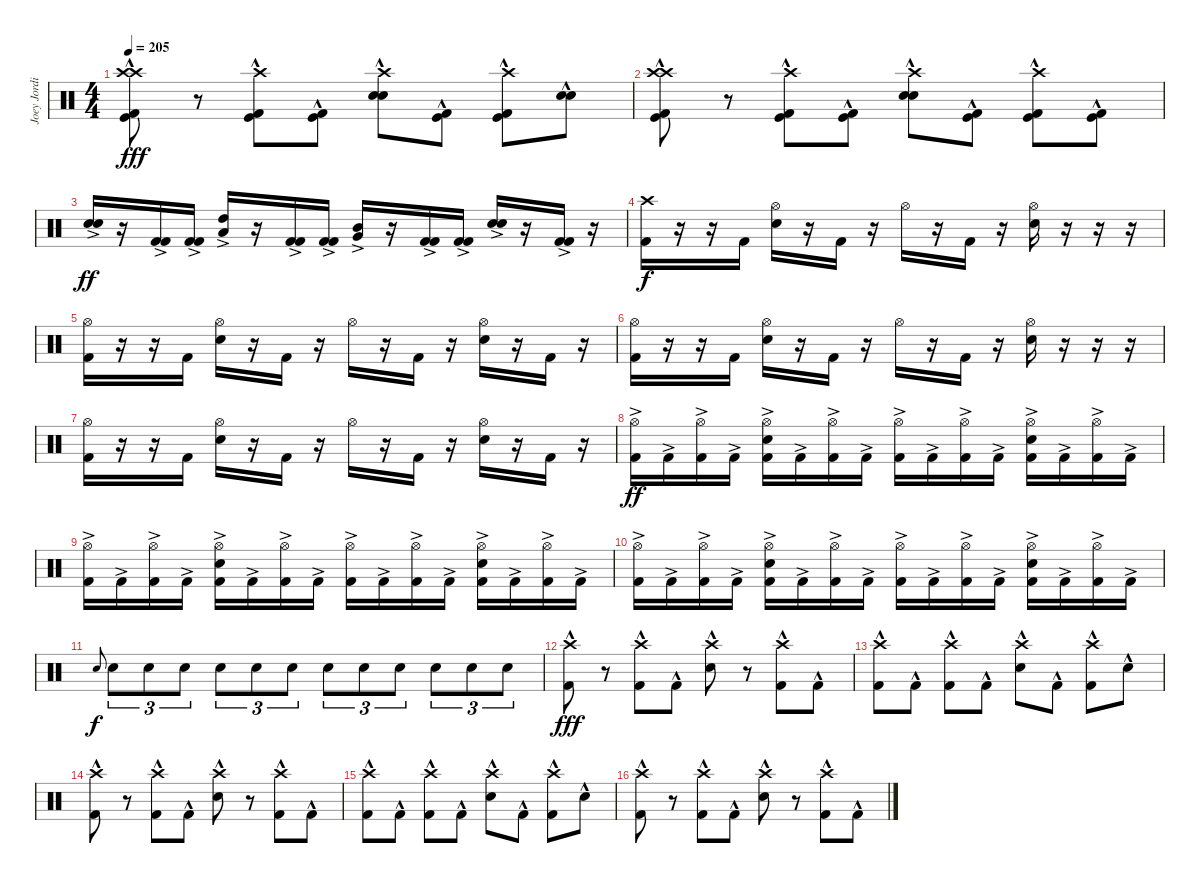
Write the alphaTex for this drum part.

\track ("Joey Jordison" "Joey Jordi") {instrument percussion}
\staff {score}
\articulation defaults
\ts (4 4)
\tempo 205
\clef neutral
\ks c
("Crash high (hit)"{hac} "Crash high (hit)"{hac} "Kick (hit)"{hac} "Kick (hit) 2"{hac}).8{dy fff} r.8 ("Crash high (hit)"{hac} "Kick (hit)"{hac} "Kick (hit) 2"{hac}).8 ("Kick (hit)"{hac} "Kick (hit) 2"{hac}).8 ("Crash high (hit)"{hac} "Electric Snare (hit)"{hac} "Electric Snare (hit)"{hac}).8 ("Kick (hit)"{hac} "Kick (hit) 2"{hac}).8 ("Crash high (hit)"{hac} "Kick (hit)"{hac} "Kick (hit) 2"{hac}).8 ("Electric Snare (hit)"{hac} "Electric Snare (hit)"{hac}).8 |
("Crash high (hit)"{hac} "Crash high (hit)"{hac} "Kick (hit)"{hac} "Kick (hit) 2"{hac}).8 r.8 ("Crash high (hit)"{hac} "Kick (hit)"{hac} "Kick (hit) 2"{hac}).8 ("Kick (hit)"{hac} "Kick (hit) 2"{hac}).8 ("Crash high (hit)"{hac} "Electric Snare (hit)"{hac} "Electric Snare (hit)"{hac}).8 ("Kick (hit)"{hac} "Kick (hit) 2"{hac}).8 ("Crash high (hit)"{hac} "Kick (hit)"{hac} "Kick (hit) 2"{hac}).8 ("Kick (hit)"{hac} "Kick (hit) 2"{hac}).8 |
("Electric Snare (hit)"{ac} "Electric Snare (hit)"{ac}).16{dy ff} r.16 ("Kick (hit) 2"{ac} "Kick (hit) 2"{ac}).16 ("Kick (hit) 2"{ac} "Kick (hit) 2"{ac}).16 ("High Tom (hit)"{ac} "Low Tom (hit)"{ac}).16 r.16 ("Kick (hit) 2"{ac} "Kick (hit) 2"{ac}).16 ("Kick (hit) 2"{ac} "Kick (hit) 2"{ac}).16 ("Mid Tom (hit)"{ac} "Very Low Tom (hit)"{ac}).16 r.16 ("Kick (hit) 2"{ac} "Kick (hit) 2"{ac}).16 ("Kick (hit) 2"{ac} "Kick (hit) 2"{ac}).16 ("Electric Snare (hit)"{ac} "Electric Snare (hit)"{ac}).16 r.16 ("Kick (hit) 2"{ac} "Kick (hit) 2"{ac}).16 r.16 |
("Crash high (hit)" "Kick (hit) 2").16{dy f} r.16 r.16 "Kick (hit) 2".16 ("Hi-Hat (open)" "Electric Snare (hit)").16 r.16 "Kick (hit) 2".16 r.16 "Hi-Hat (open)".16 r.16 "Kick (hit) 2".16 r.16 ("Hi-Hat (open)" "Electric Snare (hit)").16 r.16 r.16 r.16 |
("Hi-Hat (open)" "Kick (hit) 2").16 r.16 r.16 "Kick (hit) 2".16 ("Hi-Hat (open)" "Electric Snare (hit)").16 r.16 "Kick (hit) 2".16 r.16 "Hi-Hat (open)".16 r.16 "Kick (hit) 2".16 r.16 ("Hi-Hat (open)" "Electric Snare (hit)").16 r.16 "Kick (hit) 2".16 r.16 |
("Hi-Hat (open)" "Kick (hit) 2").16 r.16 r.16 "Kick (hit) 2".16 ("Hi-Hat (open)" "Electric Snare (hit)").16 r.16 "Kick (hit) 2".16 r.16 "Hi-Hat (open)".16 r.16 "Kick (hit) 2".16 r.16 ("Hi-Hat (open)" "Electric Snare (hit)").16 r.16 r.16 r.16 |
("Hi-Hat (open)" "Kick (hit) 2").16 r.16 r.16 "Kick (hit) 2".16 ("Hi-Hat (open)" "Electric Snare (hit)").16 r.16 "Kick (hit) 2".16 r.16 "Hi-Hat (open)".16 r.16 "Kick (hit) 2".16 r.16 ("Hi-Hat (open)" "Electric Snare (hit)").16 r.16 "Kick (hit) 2".16 r.16 |
("Hi-Hat (open)"{ac} "Kick (hit) 2"{ac}).16{dy ff} "Kick (hit) 2"{ac}.16 ("Hi-Hat (open)"{ac} "Kick (hit) 2"{ac}).16 "Kick (hit) 2"{ac}.16 ("Hi-Hat (open)"{ac} "Electric Snare (hit)"{ac} "Kick (hit) 2"{ac}).16 "Kick (hit) 2"{ac}.16 ("Hi-Hat (open)"{ac} "Kick (hit) 2"{ac}).16 "Kick (hit) 2"{ac}.16 ("Hi-Hat (open)"{ac} "Kick (hit) 2"{ac}).16 "Kick (hit) 2"{ac}.16 ("Hi-Hat (open)"{ac} "Kick (hit) 2"{ac}).16 "Kick (hit) 2"{ac}.16 ("Hi-Hat (open)"{ac} "Electric Snare (hit)"{ac} "Kick (hit) 2"{ac}).16 "Kick (hit) 2"{ac}.16 ("Hi-Hat (open)"{ac} "Kick (hit) 2"{ac}).16 "Kick (hit) 2"{ac}.16 |
("Hi-Hat (open)"{ac} "Kick (hit) 2"{ac}).16 "Kick (hit) 2"{ac}.16 ("Hi-Hat (open)"{ac} "Kick (hit) 2"{ac}).16 "Kick (hit) 2"{ac}.16 ("Hi-Hat (open)"{ac} "Electric Snare (hit)"{ac} "Kick (hit) 2"{ac}).16 "Kick (hit) 2"{ac}.16 ("Hi-Hat (open)"{ac} "Kick (hit) 2"{ac}).16 "Kick (hit) 2"{ac}.16 ("Hi-Hat (open)"{ac} "Kick (hit) 2"{ac}).16 "Kick (hit) 2"{ac}.16 ("Hi-Hat (open)"{ac} "Kick (hit) 2"{ac}).16 "Kick (hit) 2"{ac}.16 ("Hi-Hat (open)"{ac} "Electric Snare (hit)"{ac} "Kick (hit) 2"{ac}).16 "Kick (hit) 2"{ac}.16 ("Hi-Hat (open)"{ac} "Kick (hit) 2"{ac}).16 "Kick (hit) 2"{ac}.16 |
("Hi-Hat (open)"{ac} "Kick (hit) 2"{ac}).16 "Kick (hit) 2"{ac}.16 ("Hi-Hat (open)"{ac} "Kick (hit) 2"{ac}).16 "Kick (hit) 2"{ac}.16 ("Hi-Hat (open)"{ac} "Electric Snare (hit)"{ac} "Kick (hit) 2"{ac}).16 "Kick (hit) 2"{ac}.16 ("Hi-Hat (open)"{ac} "Kick (hit) 2"{ac}).16 "Kick (hit) 2"{ac}.16 ("Hi-Hat (open)"{ac} "Kick (hit) 2"{ac}).16 "Kick (hit) 2"{ac}.16 ("Hi-Hat (open)"{ac} "Kick (hit) 2"{ac}).16 "Kick (hit) 2"{ac}.16 ("Hi-Hat (open)"{ac} "Electric Snare (hit)"{ac} "Kick (hit) 2"{ac}).16 "Kick (hit) 2"{ac}.16 ("Hi-Hat (open)"{ac} "Kick (hit) 2"{ac}).16 "Kick (hit) 2"{ac}.16 |
"Electric Snare (hit)".8{gr onbeat dy f} "Electric Snare (hit)".8{tu (3 2)} "Electric Snare (hit)".8{tu (3 2)} "Electric Snare (hit)".8{tu (3 2)} "Electric Snare (hit)".8{tu (3 2)} "Electric Snare (hit)".8{tu (3 2)} "Electric Snare (hit)".8{tu (3 2)} "Electric Snare (hit)".8{tu (3 2)} "Electric Snare (hit)".8{tu (3 2)} "Electric Snare (hit)".8{tu (3 2)} "Electric Snare (hit)".8{tu (3 2)} "Electric Snare (hit)".8{tu (3 2)} "Electric Snare (hit)".8{tu (3 2)} |
("Crash high (hit)"{hac} "Kick (hit) 2"{hac}).8{dy fff} r.8 ("Crash high (hit)"{hac} "Kick (hit) 2"{hac}).8 "Kick (hit) 2"{hac}.8 ("Crash high (hit)"{hac} "Electric Snare (hit)"{hac}).8 r.8 ("Crash high (hit)"{hac} "Kick (hit) 2"{hac}).8 "Kick (hit) 2"{hac}.8 |
("Crash high (hit)"{hac} "Kick (hit) 2"{hac}).8 "Kick (hit) 2"{hac}.8 ("Crash high (hit)"{hac} "Kick (hit) 2"{hac}).8 "Kick (hit) 2"{hac}.8 ("Crash high (hit)"{hac} "Electric Snare (hit)"{hac}).8 "Kick (hit) 2"{hac}.8 ("Crash high (hit)"{hac} "Kick (hit) 2"{hac}).8 "Electric Snare (hit)"{hac}.8 |
("Crash high (hit)"{hac} "Kick (hit) 2"{hac}).8 r.8 ("Crash high (hit)"{hac} "Kick (hit) 2"{hac}).8 "Kick (hit) 2"{hac}.8 ("Crash high (hit)"{hac} "Electric Snare (hit)"{hac}).8 r.8 ("Crash high (hit)"{hac} "Kick (hit) 2"{hac}).8 "Kick (hit) 2"{hac}.8 |
("Crash high (hit)"{hac} "Kick (hit) 2"{hac}).8 "Kick (hit) 2"{hac}.8 ("Crash high (hit)"{hac} "Kick (hit) 2"{hac}).8 "Kick (hit) 2"{hac}.8 ("Crash high (hit)"{hac} "Electric Snare (hit)"{hac}).8 "Kick (hit) 2"{hac}.8 ("Crash high (hit)"{hac} "Kick (hit) 2"{hac}).8 "Electric Snare (hit)"{hac}.8 |
("Crash high (hit)"{hac} "Kick (hit) 2"{hac}).8 r.8 ("Crash high (hit)"{hac} "Kick (hit) 2"{hac}).8 "Kick (hit) 2"{hac}.8 ("Crash high (hit)"{hac} "Electric Snare (hit)"{hac}).8 r.8 ("Crash high (hit)"{hac} "Kick (hit) 2"{hac}).8 "Kick (hit) 2"{hac}.8
